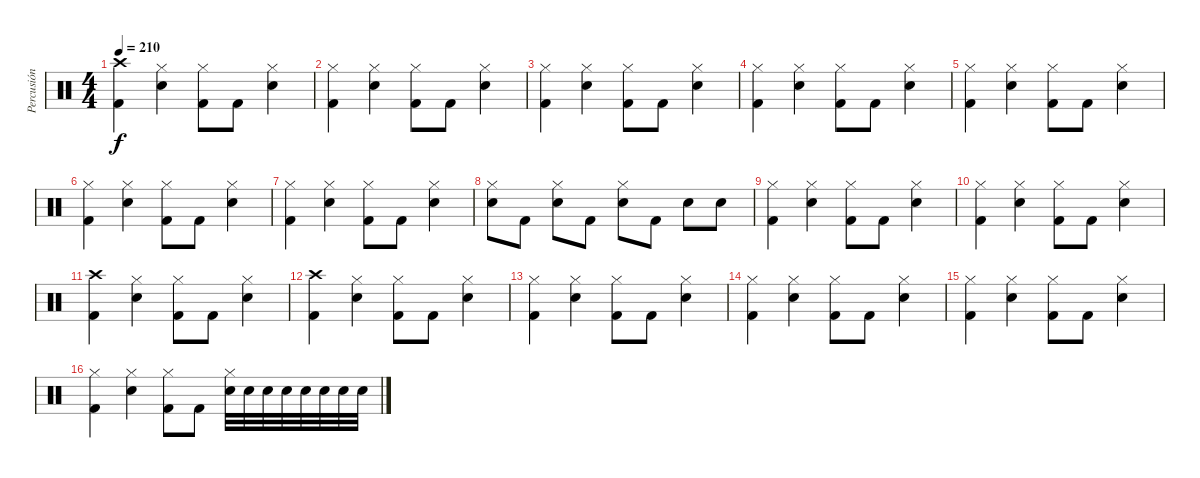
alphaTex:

\track ("Percusión" "Percusión") {instrument percussion}
\staff {score}
\articulation defaults
\ts (4 4)
\tempo 210
\clef neutral
\ks c
("Crash high (hit)" "Kick (hit) 2").4{dy f} ("Hi-Hat (closed)" "Electric Snare (hit)").4 ("Hi-Hat (closed)" "Kick (hit) 2").8 "Kick (hit) 2".8 ("Hi-Hat (closed)" "Electric Snare (hit)").4 |
("Hi-Hat (closed)" "Kick (hit) 2").4 ("Hi-Hat (closed)" "Electric Snare (hit)").4 ("Hi-Hat (closed)" "Kick (hit) 2").8 "Kick (hit) 2".8 ("Hi-Hat (closed)" "Electric Snare (hit)").4 |
("Hi-Hat (closed)" "Kick (hit) 2").4 ("Hi-Hat (closed)" "Electric Snare (hit)").4 ("Hi-Hat (closed)" "Kick (hit) 2").8 "Kick (hit) 2".8 ("Hi-Hat (closed)" "Electric Snare (hit)").4 |
("Hi-Hat (closed)" "Kick (hit) 2").4 ("Hi-Hat (closed)" "Electric Snare (hit)").4 ("Hi-Hat (closed)" "Kick (hit) 2").8 "Kick (hit) 2".8 ("Hi-Hat (closed)" "Electric Snare (hit)").4 |
("Hi-Hat (closed)" "Kick (hit) 2").4 ("Hi-Hat (closed)" "Electric Snare (hit)").4 ("Hi-Hat (closed)" "Kick (hit) 2").8 "Kick (hit) 2".8 ("Hi-Hat (closed)" "Electric Snare (hit)").4 |
("Hi-Hat (closed)" "Kick (hit) 2").4 ("Hi-Hat (closed)" "Electric Snare (hit)").4 ("Hi-Hat (closed)" "Kick (hit) 2").8 "Kick (hit) 2".8 ("Hi-Hat (closed)" "Electric Snare (hit)").4 |
("Hi-Hat (closed)" "Kick (hit) 2").4 ("Hi-Hat (closed)" "Electric Snare (hit)").4 ("Hi-Hat (closed)" "Kick (hit) 2").8 "Kick (hit) 2".8 ("Hi-Hat (closed)" "Electric Snare (hit)").4 |
("Hi-Hat (closed)" "Electric Snare (hit)").8 "Kick (hit) 2".8 ("Hi-Hat (closed)" "Electric Snare (hit)").8 "Kick (hit) 2".8 ("Hi-Hat (closed)" "Electric Snare (hit)").8 "Kick (hit) 2".8 "Electric Snare (hit)".8 "Electric Snare (hit)".8 |
("Hi-Hat (closed)" "Kick (hit) 2").4 ("Hi-Hat (closed)" "Electric Snare (hit)").4 ("Hi-Hat (closed)" "Kick (hit) 2").8 "Kick (hit) 2".8 ("Hi-Hat (closed)" "Electric Snare (hit)").4 |
("Hi-Hat (closed)" "Kick (hit) 2").4 ("Hi-Hat (closed)" "Electric Snare (hit)").4 ("Hi-Hat (closed)" "Kick (hit) 2").8 "Kick (hit) 2".8 ("Hi-Hat (closed)" "Electric Snare (hit)").4 |
("Crash high (hit)" "Kick (hit) 2").4 ("Hi-Hat (closed)" "Electric Snare (hit)").4 ("Hi-Hat (closed)" "Kick (hit) 2").8 "Kick (hit) 2".8 ("Hi-Hat (closed)" "Electric Snare (hit)").4 |
("Crash high (hit)" "Kick (hit) 2").4 ("Hi-Hat (closed)" "Electric Snare (hit)").4 ("Hi-Hat (closed)" "Kick (hit) 2").8 "Kick (hit) 2".8 ("Hi-Hat (closed)" "Electric Snare (hit)").4 |
("Hi-Hat (closed)" "Kick (hit) 2").4 ("Hi-Hat (closed)" "Electric Snare (hit)").4 ("Hi-Hat (closed)" "Kick (hit) 2").8 "Kick (hit) 2".8 ("Hi-Hat (closed)" "Electric Snare (hit)").4 |
("Hi-Hat (closed)" "Kick (hit) 2").4 ("Hi-Hat (closed)" "Electric Snare (hit)").4 ("Hi-Hat (closed)" "Kick (hit) 2").8 "Kick (hit) 2".8 ("Hi-Hat (closed)" "Electric Snare (hit)").4 |
("Hi-Hat (closed)" "Kick (hit) 2").4 ("Hi-Hat (closed)" "Electric Snare (hit)").4 ("Hi-Hat (closed)" "Kick (hit) 2").8 "Kick (hit) 2".8 ("Hi-Hat (closed)" "Electric Snare (hit)").4 |
("Hi-Hat (closed)" "Kick (hit) 2").4 ("Hi-Hat (closed)" "Electric Snare (hit)").4 ("Hi-Hat (closed)" "Kick (hit) 2").8 "Kick (hit) 2".8 ("Hi-Hat (closed)" "Electric Snare (hit)").32 "Electric Snare (hit)".32 "Electric Snare (hit)".32 "Electric Snare (hit)".32 "Electric Snare (hit)".32 "Electric Snare (hit)".32 "Electric Snare (hit)".32 "Electric Snare (hit)".32
